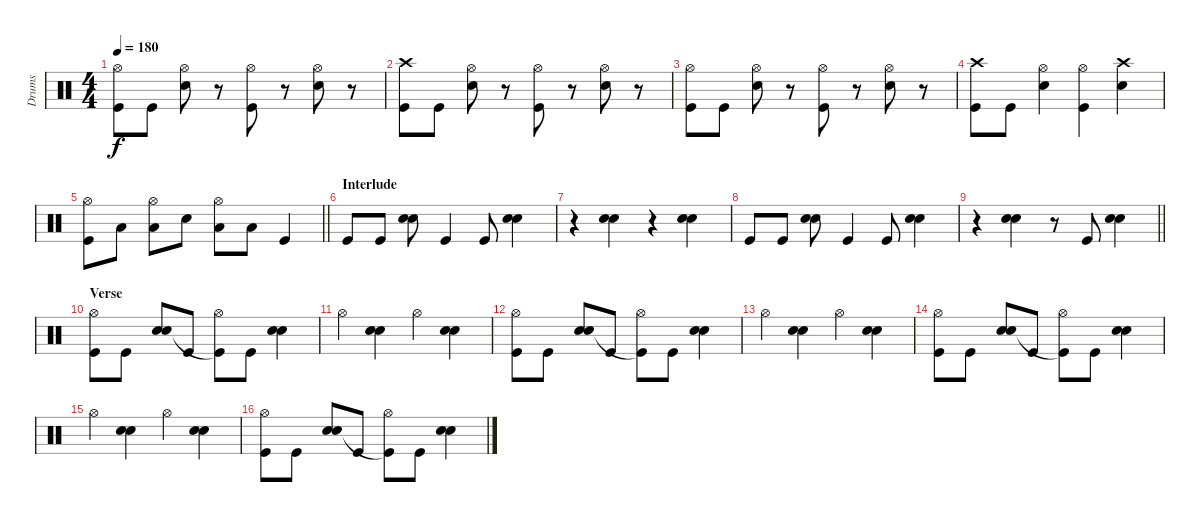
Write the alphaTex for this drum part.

\track ("Drums" "Drums") {instrument percussion}
\staff {score}
\articulation defaults
\ts (4 4)
\tempo 180
\clef neutral
\ks c
("Hi-Hat (open)" "Kick (hit)").8{dy f} "Kick (hit)".8 ("Hi-Hat (open)" "Snare (hit) 2").8 r.8 ("Hi-Hat (open)" "Kick (hit)").8 r.8 ("Hi-Hat (open)" "Snare (hit) 2").8 r.8 |
("Crash high (hit)" "Kick (hit)").8 "Kick (hit)".8 ("Hi-Hat (open)" "Snare (hit) 2").8 r.8 ("Hi-Hat (open)" "Kick (hit)").8 r.8 ("Hi-Hat (open)" "Snare (hit) 2").8 r.8 |
("Hi-Hat (open)" "Kick (hit)").8 "Kick (hit)".8 ("Hi-Hat (open)" "Snare (hit) 2").8 r.8 ("Hi-Hat (open)" "Kick (hit)").8 r.8 ("Hi-Hat (open)" "Snare (hit) 2").8 r.8 |
("Crash high (hit)" "Kick (hit)").8 "Kick (hit)".8 ("Hi-Hat (open)" "Snare (hit) 2").4 ("Hi-Hat (open)" "Kick (hit)").4 ("Crash high (hit)" "Snare (hit) 2").4 |
\barLineRight lightlight
("Hi-Hat (open)" "Kick (hit)").8 "Low Tom (hit)".8 ("Hi-Hat (open)" "Low Tom (hit)").8 "Snare (hit) 2".8 ("Hi-Hat (open)" "Low Tom (hit)").8 "Low Tom (hit)".8 "Kick (hit)".4 |
\section ("" "Interlude")
"Kick (hit)".8 "Kick (hit)".8 ("Snare (hit) 2" "Electric Snare (hit)").8 "Kick (hit)".4 "Kick (hit)".8 ("Snare (hit) 2" "Electric Snare (hit)").4 |
r.4 ("Snare (hit) 2" "Electric Snare (hit)").4 r.4 ("Snare (hit) 2" "Electric Snare (hit)").4 |
"Kick (hit)".8 "Kick (hit)".8 ("Snare (hit) 2" "Electric Snare (hit)").8 "Kick (hit)".4 "Kick (hit)".8 ("Snare (hit) 2" "Electric Snare (hit)").4 |
\barLineRight lightlight
r.4 ("Snare (hit) 2" "Electric Snare (hit)").4 r.8 "Kick (hit)".8 ("Snare (hit) 2" "Electric Snare (hit)").4 |
\section ("" "Verse")
("Hi-Hat (open)" "Kick (hit)").8 "Kick (hit)".8 ("Snare (hit) 2" "Electric Snare (hit)").8 "Kick (hit)".8 ("Hi-Hat (open)" "Kick (hit)"{t}).8 "Kick (hit)".8 ("Snare (hit) 2" "Electric Snare (hit)").4 |
"Hi-Hat (open)".4 ("Snare (hit) 2" "Electric Snare (hit)").4 "Hi-Hat (open)".4 ("Snare (hit) 2" "Electric Snare (hit)").4 |
("Hi-Hat (open)" "Kick (hit)").8 "Kick (hit)".8 ("Snare (hit) 2" "Electric Snare (hit)").8 "Kick (hit)".8 ("Hi-Hat (open)" "Kick (hit)"{t}).8 "Kick (hit)".8 ("Snare (hit) 2" "Electric Snare (hit)").4 |
"Hi-Hat (open)".4 ("Snare (hit) 2" "Electric Snare (hit)").4 "Hi-Hat (open)".4 ("Snare (hit) 2" "Electric Snare (hit)").4 |
("Hi-Hat (open)" "Kick (hit)").8 "Kick (hit)".8 ("Snare (hit) 2" "Electric Snare (hit)").8 "Kick (hit)".8 ("Hi-Hat (open)" "Kick (hit)"{t}).8 "Kick (hit)".8 ("Snare (hit) 2" "Electric Snare (hit)").4 |
"Hi-Hat (open)".4 ("Snare (hit) 2" "Electric Snare (hit)").4 "Hi-Hat (open)".4 ("Snare (hit) 2" "Electric Snare (hit)").4 |
("Hi-Hat (open)" "Kick (hit)").8 "Kick (hit)".8 ("Snare (hit) 2" "Electric Snare (hit)").8 "Kick (hit)".8 ("Hi-Hat (open)" "Kick (hit)"{t}).8 "Kick (hit)".8 ("Snare (hit) 2" "Electric Snare (hit)").4
